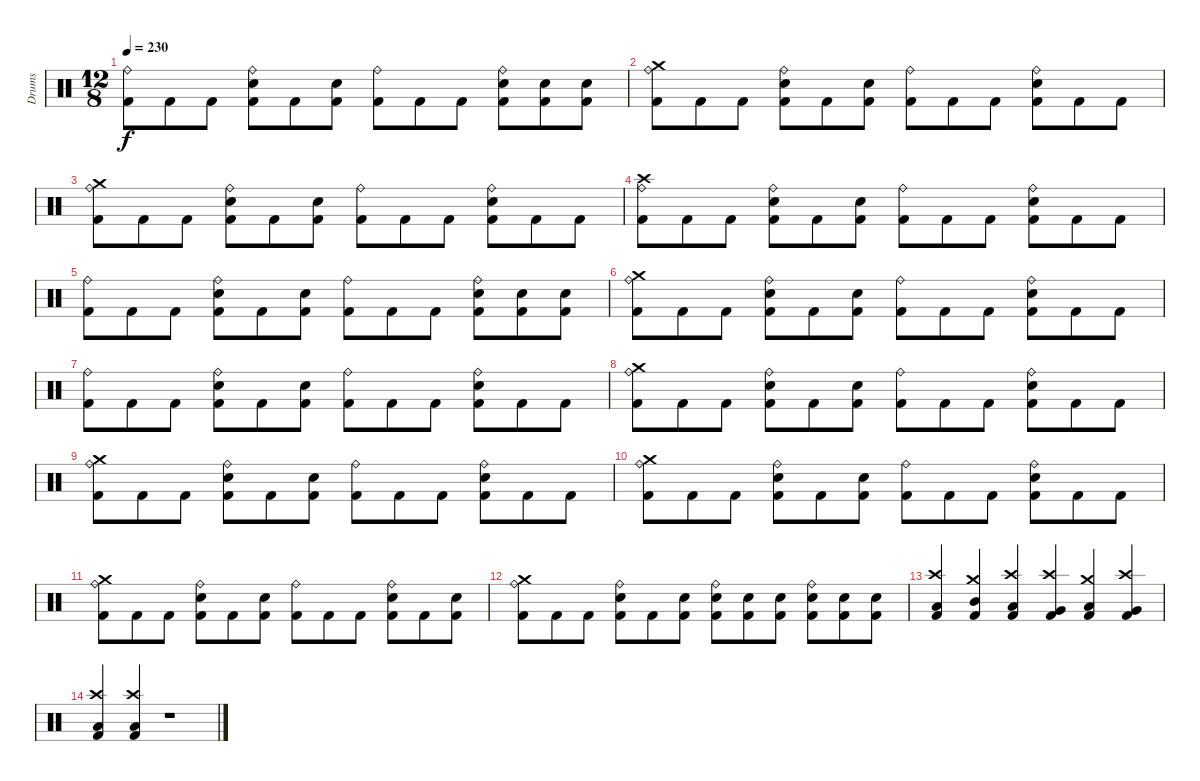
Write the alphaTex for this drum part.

\track ("Drums" "Drums") {instrument percussion}
\staff {score}
\articulation defaults
\ts (12 8)
\tempo 230
\clef neutral
\ks c
("Ride (bell)" "Kick (hit) 2").8{dy f} "Kick (hit) 2".8 "Kick (hit) 2".8 ("Ride (bell)" "Snare (hit) 2" "Kick (hit) 2").8 "Kick (hit) 2".8 ("Snare (hit) 2" "Kick (hit) 2").8 ("Ride (bell)" "Kick (hit) 2").8 "Kick (hit) 2".8 "Kick (hit) 2".8 ("Ride (bell)" "Snare (hit) 2" "Kick (hit) 2").8 ("Snare (hit) 2" "Kick (hit) 2").8 ("Snare (hit) 2" "Kick (hit) 2").8 |
("Crash medium (hit)" "Ride (bell)" "Kick (hit) 2").8 "Kick (hit) 2".8 "Kick (hit) 2".8 ("Ride (bell)" "Snare (hit) 2" "Kick (hit) 2").8 "Kick (hit) 2".8 ("Snare (hit) 2" "Kick (hit) 2").8 ("Ride (bell)" "Kick (hit) 2").8 "Kick (hit) 2".8 "Kick (hit) 2".8 ("Ride (bell)" "Snare (hit) 2" "Kick (hit) 2").8 "Kick (hit) 2".8 "Kick (hit) 2".8 |
("Crash medium (hit)" "Ride (bell)" "Kick (hit) 2").8 "Kick (hit) 2".8 "Kick (hit) 2".8 ("Ride (bell)" "Snare (hit) 2" "Kick (hit) 2").8 "Kick (hit) 2".8 ("Snare (hit) 2" "Kick (hit) 2").8 ("Ride (bell)" "Kick (hit) 2").8 "Kick (hit) 2".8 "Kick (hit) 2".8 ("Ride (bell)" "Snare (hit) 2" "Kick (hit) 2").8 "Kick (hit) 2".8 "Kick (hit) 2".8 |
("Crash high (hit)" "Ride (bell)" "Kick (hit) 2").8 "Kick (hit) 2".8 "Kick (hit) 2".8 ("Ride (bell)" "Snare (hit) 2" "Kick (hit) 2").8 "Kick (hit) 2".8 ("Snare (hit) 2" "Kick (hit) 2").8 ("Ride (bell)" "Kick (hit) 2").8 "Kick (hit) 2".8 "Kick (hit) 2".8 ("Ride (bell)" "Snare (hit) 2" "Kick (hit) 2").8 "Kick (hit) 2".8 "Kick (hit) 2".8 |
("Ride (bell)" "Kick (hit) 2").8 "Kick (hit) 2".8 "Kick (hit) 2".8 ("Ride (bell)" "Snare (hit) 2" "Kick (hit) 2").8 "Kick (hit) 2".8 ("Snare (hit) 2" "Kick (hit) 2").8 ("Ride (bell)" "Kick (hit) 2").8 "Kick (hit) 2".8 "Kick (hit) 2".8 ("Ride (bell)" "Snare (hit) 2" "Kick (hit) 2").8 ("Snare (hit) 2" "Kick (hit) 2").8 ("Snare (hit) 2" "Kick (hit) 2").8 |
("Crash medium (hit)" "Ride (bell)" "Kick (hit) 2").8 "Kick (hit) 2".8 "Kick (hit) 2".8 ("Ride (bell)" "Snare (hit) 2" "Kick (hit) 2").8 "Kick (hit) 2".8 ("Snare (hit) 2" "Kick (hit) 2").8 ("Ride (bell)" "Kick (hit) 2").8 "Kick (hit) 2".8 "Kick (hit) 2".8 ("Ride (bell)" "Snare (hit) 2" "Kick (hit) 2").8 "Kick (hit) 2".8 "Kick (hit) 2".8 |
("Ride (bell)" "Kick (hit) 2").8 "Kick (hit) 2".8 "Kick (hit) 2".8 ("Ride (bell)" "Snare (hit) 2" "Kick (hit) 2").8 "Kick (hit) 2".8 ("Snare (hit) 2" "Kick (hit) 2").8 ("Ride (bell)" "Kick (hit) 2").8 "Kick (hit) 2".8 "Kick (hit) 2".8 ("Ride (bell)" "Snare (hit) 2" "Kick (hit) 2").8 "Kick (hit) 2".8 "Kick (hit) 2".8 |
("Crash medium (hit)" "Ride (bell)" "Kick (hit) 2").8 "Kick (hit) 2".8 "Kick (hit) 2".8 ("Ride (bell)" "Snare (hit) 2" "Kick (hit) 2").8 "Kick (hit) 2".8 ("Snare (hit) 2" "Kick (hit) 2").8 ("Ride (bell)" "Kick (hit) 2").8 "Kick (hit) 2".8 "Kick (hit) 2".8 ("Ride (bell)" "Snare (hit) 2" "Kick (hit) 2").8 "Kick (hit) 2".8 "Kick (hit) 2".8 |
("Crash medium (hit)" "Ride (bell)" "Kick (hit) 2").8 "Kick (hit) 2".8 "Kick (hit) 2".8 ("Ride (bell)" "Snare (hit) 2" "Kick (hit) 2").8 "Kick (hit) 2".8 ("Snare (hit) 2" "Kick (hit) 2").8 ("Ride (bell)" "Kick (hit) 2").8 "Kick (hit) 2".8 "Kick (hit) 2".8 ("Ride (bell)" "Snare (hit) 2" "Kick (hit) 2").8 "Kick (hit) 2".8 "Kick (hit) 2".8 |
("Crash medium (hit)" "Ride (bell)" "Kick (hit) 2").8 "Kick (hit) 2".8 "Kick (hit) 2".8 ("Ride (bell)" "Snare (hit) 2" "Kick (hit) 2").8 "Kick (hit) 2".8 ("Snare (hit) 2" "Kick (hit) 2").8 ("Ride (bell)" "Kick (hit) 2").8 "Kick (hit) 2".8 "Kick (hit) 2".8 ("Ride (bell)" "Snare (hit) 2" "Kick (hit) 2").8 "Kick (hit) 2".8 "Kick (hit) 2".8 |
("Crash medium (hit)" "Ride (bell)" "Kick (hit) 2").8 "Kick (hit) 2".8 "Kick (hit) 2".8 ("Ride (bell)" "Snare (hit) 2" "Kick (hit) 2").8 "Kick (hit) 2".8 ("Snare (hit) 2" "Kick (hit) 2").8 ("Ride (bell)" "Kick (hit) 2").8 "Kick (hit) 2".8 "Kick (hit) 2".8 ("Ride (bell)" "Snare (hit) 2" "Kick (hit) 2").8 "Kick (hit) 2".8 ("Snare (hit) 2" "Kick (hit) 2").8 |
("Crash medium (hit)" "Ride (bell)" "Kick (hit) 2").8 "Kick (hit) 2".8 "Kick (hit) 2".8 ("Ride (bell)" "Snare (hit) 2" "Kick (hit) 2").8 "Kick (hit) 2".8 ("Snare (hit) 2" "Kick (hit) 2").8 ("Ride (bell)" "Snare (hit) 2" "Kick (hit) 2").8 ("Snare (hit) 2" "Kick (hit) 2").8 ("Snare (hit) 2" "Kick (hit) 2").8 ("Ride (bell)" "Snare (hit) 2" "Kick (hit) 2").8 ("Snare (hit) 2" "Kick (hit) 2").8 ("Snare (hit) 2" "Kick (hit) 2").8 |
("Crash high (hit)" "Low Tom (hit)" "Kick (hit) 2").4 ("Crash medium (hit)" "Mid Tom (hit)" "Kick (hit) 2").4 ("Crash high (hit)" "Low Tom (hit)" "Kick (hit) 2").4 ("Crash high (hit)" "Very Low Tom (hit)" "Kick (hit) 2").4 ("Crash medium (hit)" "Low Floor Tom (hit)" "Kick (hit) 2").4 ("Crash high (hit)" "Very Low Tom (hit)" "Kick (hit) 2").4 |
("Crash high (hit)" "Low Floor Tom (hit)" "Kick (hit) 2").4 ("Crash high (hit)" "Low Floor Tom (hit)" "Kick (hit) 2").4 r.1
